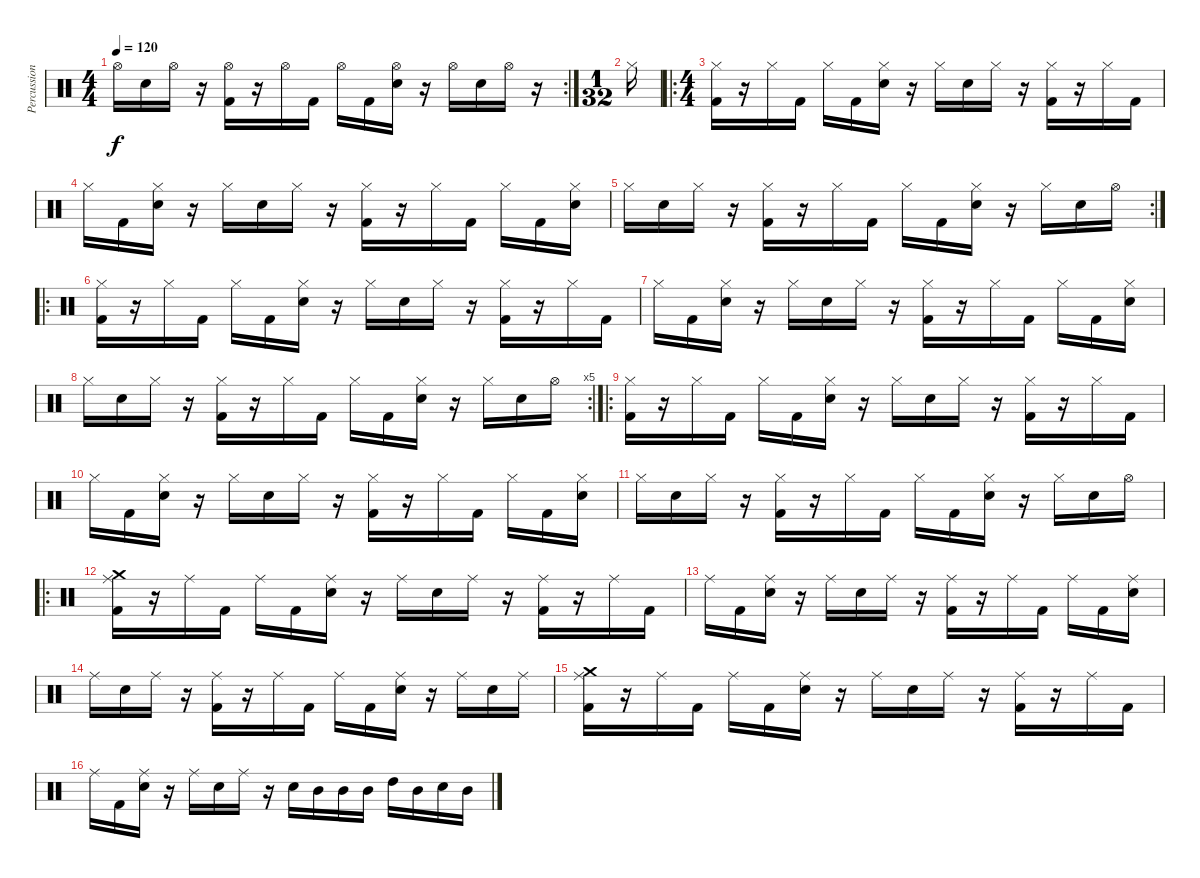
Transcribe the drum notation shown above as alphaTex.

\track ("Percussion" "Percussion") {instrument percussion}
\staff {score}
\articulation defaults
\rc 2
\ts (4 4)
\tempo 120
\clef neutral
\ks c "Hi-Hat (open)".16{dy f} "Electric Snare (hit)".16 "Hi-Hat (open)".16
r.16 ("Hi-Hat (open)" "Kick (hit) 2").16 r.16 "Hi-Hat (open)".16 "Kick (hit) 2".16 "Hi-Hat (open)".16 "Kick (hit) 2".16 ("Hi-Hat (open)" "Electric Snare (hit)").16 r.16 "Hi-Hat (open)".16 "Electric Snare (hit)".16 "Hi-Hat (open)".16 r.16 |
\ts (1 32)
"Hi-Hat (closed)".16 |
\ro
\ts (4 4)
("Hi-Hat (closed)" "Kick (hit) 2").16 r.16 "Hi-Hat (closed)".16 "Kick (hit) 2".16 "Hi-Hat (closed)".16 "Kick (hit) 2".16 ("Hi-Hat (closed)" "Electric Snare (hit)").16 r.16 "Hi-Hat (closed)".16 "Electric Snare (hit)".16 "Hi-Hat (closed)".16 r.16 ("Hi-Hat (closed)" "Kick (hit) 2").16 r.16 "Hi-Hat (closed)".16 "Kick (hit) 2".16 |
"Hi-Hat (closed)".16 "Kick (hit) 2".16 ("Hi-Hat (closed)" "Electric Snare (hit)").16 r.16 "Hi-Hat (closed)".16 "Electric Snare (hit)".16 "Hi-Hat (closed)".16 r.16 ("Hi-Hat (closed)" "Kick (hit) 2").16 r.16 "Hi-Hat (closed)".16 "Kick (hit) 2".16 "Hi-Hat (closed)".16 "Kick (hit) 2".16 ("Hi-Hat (closed)" "Electric Snare (hit)").16 |
\rc 2 "Hi-Hat (closed)".16 "Electric Snare (hit)".16 "Hi-Hat (closed)".16
r.16 ("Hi-Hat (closed)" "Kick (hit) 2").16 r.16 "Hi-Hat (closed)".16 "Kick (hit) 2".16 "Hi-Hat (closed)".16 "Kick (hit) 2".16 ("Hi-Hat (closed)" "Electric Snare (hit)").16 r.16 "Hi-Hat (closed)".16 "Electric Snare (hit)".16 "Hi-Hat (open)".16 |
\ro
("Hi-Hat (closed)" "Kick (hit) 2").16 r.16 "Hi-Hat (closed)".16 "Kick (hit) 2".16 "Hi-Hat (closed)".16 "Kick (hit) 2".16 ("Hi-Hat (closed)" "Electric Snare (hit)").16 r.16 "Hi-Hat (closed)".16 "Electric Snare (hit)".16 "Hi-Hat (closed)".16 r.16 ("Hi-Hat (closed)" "Kick (hit) 2").16 r.16 "Hi-Hat (closed)".16 "Kick (hit) 2".16 |
"Hi-Hat (closed)".16 "Kick (hit) 2".16 ("Hi-Hat (closed)" "Electric Snare (hit)").16 r.16 "Hi-Hat (closed)".16 "Electric Snare (hit)".16 "Hi-Hat (closed)".16 r.16 ("Hi-Hat (closed)" "Kick (hit) 2").16 r.16 "Hi-Hat (closed)".16 "Kick (hit) 2".16 "Hi-Hat (closed)".16 "Kick (hit) 2".16 ("Hi-Hat (closed)" "Electric Snare (hit)").16 |
\rc 5 "Hi-Hat (closed)".16 "Electric Snare (hit)".16 "Hi-Hat (closed)".16
r.16 ("Hi-Hat (closed)" "Kick (hit) 2").16 r.16 "Hi-Hat (closed)".16 "Kick (hit) 2".16 "Hi-Hat (closed)".16 "Kick (hit) 2".16 ("Hi-Hat (closed)" "Electric Snare (hit)").16 r.16 "Hi-Hat (closed)".16 "Electric Snare (hit)".16 "Hi-Hat (open)".16 |
\ro
("Hi-Hat (closed)" "Kick (hit) 2").16 r.16 "Hi-Hat (closed)".16 "Kick (hit) 2".16 "Hi-Hat (closed)".16 "Kick (hit) 2".16 ("Hi-Hat (closed)" "Electric Snare (hit)").16 r.16 "Hi-Hat (closed)".16 "Electric Snare (hit)".16 "Hi-Hat (closed)".16 r.16 ("Hi-Hat (closed)" "Kick (hit) 2").16 r.16 "Hi-Hat (closed)".16 "Kick (hit) 2".16 |
"Hi-Hat (closed)".16 "Kick (hit) 2".16 ("Hi-Hat (closed)" "Electric Snare (hit)").16 r.16 "Hi-Hat (closed)".16 "Electric Snare (hit)".16 "Hi-Hat (closed)".16 r.16 ("Hi-Hat (closed)" "Kick (hit) 2").16 r.16 "Hi-Hat (closed)".16 "Kick (hit) 2".16 "Hi-Hat (closed)".16 "Kick (hit) 2".16 ("Hi-Hat (closed)" "Electric Snare (hit)").16 |
"Hi-Hat (closed)".16 "Electric Snare (hit)".16 "Hi-Hat (closed)".16 r.16 ("Hi-Hat (closed)" "Kick (hit) 2").16 r.16 "Hi-Hat (closed)".16 "Kick (hit) 2".16 "Hi-Hat (closed)".16 "Kick (hit) 2".16 ("Hi-Hat (closed)" "Electric Snare (hit)").16 r.16 "Hi-Hat (closed)".16 "Electric Snare (hit)".16 "Hi-Hat (open)".16 |
\ro
("Crash medium (hit)" "Ride (middle)" "Kick (hit) 2").16 r.16 "Ride (middle)".16 "Kick (hit) 2".16 "Ride (middle)".16 "Kick (hit) 2".16 ("Ride (middle)" "Electric Snare (hit)").16 r.16 "Ride (middle)".16 "Electric Snare (hit)".16 "Ride (middle)".16 r.16 ("Ride (middle)" "Kick (hit) 2").16 r.16 "Ride (middle)".16 "Kick (hit) 2".16 |
"Ride (middle)".16 "Kick (hit) 2".16 ("Ride (middle)" "Electric Snare (hit)").16 r.16 "Ride (middle)".16 "Electric Snare (hit)".16 "Ride (middle)".16 r.16 ("Ride (middle)" "Kick (hit) 2").16 r.16 "Ride (middle)".16 "Kick (hit) 2".16 "Ride (middle)".16 "Kick (hit) 2".16 ("Ride (middle)" "Electric Snare (hit)").16 |
"Ride (middle)".16 "Electric Snare (hit)".16 "Ride (middle)".16 r.16 ("Ride (middle)" "Kick (hit) 2").16 r.16 "Ride (middle)".16 "Kick (hit) 2".16 "Ride (middle)".16 "Kick (hit) 2".16 ("Ride (middle)" "Electric Snare (hit)").16 r.16 "Ride (middle)".16 "Electric Snare (hit)".16 "Ride (middle)".16 |
("Crash medium (hit)" "Ride (middle)" "Kick (hit) 2").16 r.16 "Ride (middle)".16 "Kick (hit) 2".16 "Ride (middle)".16 "Kick (hit) 2".16 ("Ride (middle)" "Electric Snare (hit)").16 r.16 "Ride (middle)".16 "Electric Snare (hit)".16 "Ride (middle)".16 r.16 ("Ride (middle)" "Kick (hit) 2").16 r.16 "Ride (middle)".16 "Kick (hit) 2".16 |
"Ride (middle)".16 "Kick (hit) 2".16 ("Ride (middle)" "Electric Snare (hit)").16 r.16 "Ride (middle)".16 "Electric Snare (hit)".16 "Ride (middle)".16 r.16 "Electric Snare (hit)".16 "Mid Tom (hit)".16 "Mid Tom (hit)".16 "Mid Tom (hit)".16 "High Tom (hit)".16 "Mid Tom (hit)".16 "Electric Snare (hit)".16 "Mid Tom (hit)".16
